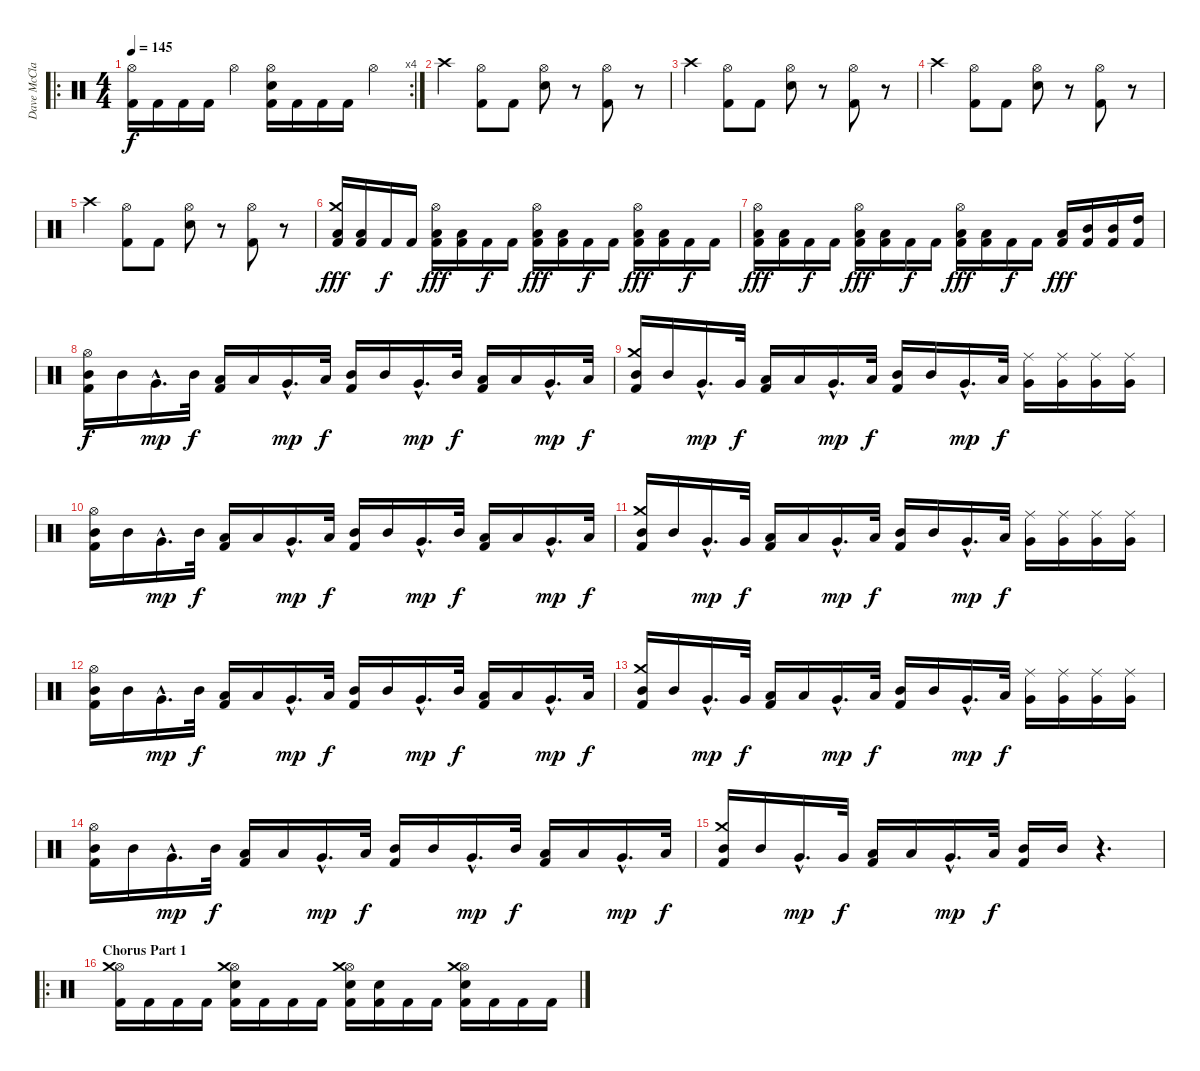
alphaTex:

\track ("Dave McClain" "Dave McCla") {instrument percussion}
\staff {score}
\articulation defaults
\ro
\rc 4
\ts (4 4)
\tempo 145
\clef neutral
\ks c
("Hi-Hat (open)" "Kick (hit) 2").16{dy f} "Kick (hit) 2".16 "Kick (hit) 2".16 "Kick (hit) 2".16 "Hi-Hat (open)".4 ("Hi-Hat (open)" "Snare (hit) 2" "Kick (hit) 2").16 "Kick (hit) 2".16 "Kick (hit) 2".16 "Kick (hit) 2".16 "Hi-Hat (open)".4 |
"Crash high (hit)".4 ("Hi-Hat (open)" "Kick (hit) 2").8 "Kick (hit) 2".8 ("Hi-Hat (open)" "Snare (hit) 2").8 r.8 ("Hi-Hat (open)" "Kick (hit) 2").8 r.8 |
"Crash high (hit)".4 ("Hi-Hat (open)" "Kick (hit) 2").8 "Kick (hit) 2".8 ("Hi-Hat (open)" "Snare (hit) 2").8 r.8 ("Hi-Hat (open)" "Kick (hit) 2").8 r.8 |
"Crash high (hit)".4 ("Hi-Hat (open)" "Kick (hit) 2").8 "Kick (hit) 2".8 ("Hi-Hat (open)" "Snare (hit) 2").8 r.8 ("Hi-Hat (open)" "Kick (hit) 2").8 r.8 |
"Crash high (hit)".4 ("Hi-Hat (open)" "Kick (hit) 2").8 "Kick (hit) 2".8 ("Hi-Hat (open)" "Snare (hit) 2").8 r.8 ("Hi-Hat (open)" "Kick (hit) 2").8 r.8 |
("Crash medium (hit)" "Low Floor Tom (hit)" "Kick (hit) 2").16{dy fff} ("Low Floor Tom (hit)" "Kick (hit) 2").16 "Kick (hit) 2".16{dy f} "Kick (hit) 2".16 ("Hi-Hat (open)" "Low Floor Tom (hit)" "Kick (hit) 2").16{dy fff} ("Low Floor Tom (hit)" "Kick (hit) 2").16 "Kick (hit) 2".16{dy f} "Kick (hit) 2".16 ("Hi-Hat (open)" "Low Floor Tom (hit)" "Kick (hit) 2").16{dy fff} ("Low Floor Tom (hit)" "Kick (hit) 2").16 "Kick (hit) 2".16{dy f} "Kick (hit) 2".16 ("Hi-Hat (open)" "Low Floor Tom (hit)" "Kick (hit) 2").16{dy fff} ("Low Floor Tom (hit)" "Kick (hit) 2").16 "Kick (hit) 2".16{dy f} "Kick (hit) 2".16 |
("Hi-Hat (open)" "Low Floor Tom (hit)" "Kick (hit) 2").16{dy fff} ("Low Floor Tom (hit)" "Kick (hit) 2").16 "Kick (hit) 2".16{dy f} "Kick (hit) 2".16 ("Hi-Hat (open)" "Low Floor Tom (hit)" "Kick (hit) 2").16{dy fff} ("Low Floor Tom (hit)" "Kick (hit) 2").16 "Kick (hit) 2".16{dy f} "Kick (hit) 2".16 ("Hi-Hat (open)" "Low Floor Tom (hit)" "Kick (hit) 2").16{dy fff} ("Low Floor Tom (hit)" "Kick (hit) 2").16 "Kick (hit) 2".16{dy f} "Kick (hit) 2".16 ("Low Tom (hit)" "Kick (hit) 2").16{dy fff} ("Mid Tom (hit)" "Kick (hit) 2").16 ("Mid Tom (hit)" "Kick (hit) 2").16 ("High Tom (hit)" "Kick (hit) 2").16 |
("Hi-Hat (open)" "Mid Tom (hit)" "Kick (hit) 2").16{dy f} "Mid Tom (hit)".16 "Very Low Tom (hit)"{hac}.16{d dy mp} "Mid Tom (hit)".32{dy f} ("Low Tom (hit)" "Kick (hit) 2").16 "Low Tom (hit)".16 "Very Low Tom (hit)"{hac}.16{d dy mp} "Low Tom (hit)".32{dy f} ("Mid Tom (hit)" "Kick (hit) 2").16 "Mid Tom (hit)".16 "Very Low Tom (hit)"{hac}.16{d dy mp} "Mid Tom (hit)".32{dy f} ("Low Tom (hit)" "Kick (hit) 2").16 "Low Tom (hit)".16 "Very Low Tom (hit)"{hac}.16{d dy mp} "Low Tom (hit)".32{dy f} |
("Crash medium (hit)" "Mid Tom (hit)" "Kick (hit) 2").16 "Mid Tom (hit)".16 "Very Low Tom (hit)"{hac}.16{d dy mp} "Very Low Tom (hit)".32{dy f} ("Low Tom (hit)" "Kick (hit) 2").16 "Low Tom (hit)".16 "Very Low Tom (hit)"{hac}.16{d dy mp} "Low Tom (hit)".32{dy f} ("Mid Tom (hit)" "Kick (hit) 2").16 "Mid Tom (hit)".16 "Very Low Tom (hit)"{hac}.16{d dy mp} "Low Tom (hit)".32{dy f} ("Ride (middle)" "Very Low Tom (hit)").16 ("Ride (middle)" "Very Low Tom (hit)").16 ("Ride (middle)" "Very Low Tom (hit)").16 ("Ride (middle)" "Very Low Tom (hit)").16 |
("Hi-Hat (open)" "Mid Tom (hit)" "Kick (hit) 2").16 "Mid Tom (hit)".16 "Very Low Tom (hit)"{hac}.16{d dy mp} "Mid Tom (hit)".32{dy f} ("Low Tom (hit)" "Kick (hit) 2").16 "Low Tom (hit)".16 "Very Low Tom (hit)"{hac}.16{d dy mp} "Low Tom (hit)".32{dy f} ("Mid Tom (hit)" "Kick (hit) 2").16 "Mid Tom (hit)".16 "Very Low Tom (hit)"{hac}.16{d dy mp} "Mid Tom (hit)".32{dy f} ("Low Tom (hit)" "Kick (hit) 2").16 "Low Tom (hit)".16 "Very Low Tom (hit)"{hac}.16{d dy mp} "Low Tom (hit)".32{dy f} |
("Crash medium (hit)" "Mid Tom (hit)" "Kick (hit) 2").16 "Mid Tom (hit)".16 "Very Low Tom (hit)"{hac}.16{d dy mp} "Very Low Tom (hit)".32{dy f} ("Low Tom (hit)" "Kick (hit) 2").16 "Low Tom (hit)".16 "Very Low Tom (hit)"{hac}.16{d dy mp} "Low Tom (hit)".32{dy f} ("Mid Tom (hit)" "Kick (hit) 2").16 "Mid Tom (hit)".16 "Very Low Tom (hit)"{hac}.16{d dy mp} "Low Tom (hit)".32{dy f} ("Ride (middle)" "Very Low Tom (hit)").16 ("Ride (middle)" "Very Low Tom (hit)").16 ("Ride (middle)" "Very Low Tom (hit)").16 ("Ride (middle)" "Very Low Tom (hit)").16 |
("Hi-Hat (open)" "Mid Tom (hit)" "Kick (hit) 2").16 "Mid Tom (hit)".16 "Very Low Tom (hit)"{hac}.16{d dy mp} "Mid Tom (hit)".32{dy f} ("Low Tom (hit)" "Kick (hit) 2").16 "Low Tom (hit)".16 "Very Low Tom (hit)"{hac}.16{d dy mp} "Low Tom (hit)".32{dy f} ("Mid Tom (hit)" "Kick (hit) 2").16 "Mid Tom (hit)".16 "Very Low Tom (hit)"{hac}.16{d dy mp} "Mid Tom (hit)".32{dy f} ("Low Tom (hit)" "Kick (hit) 2").16 "Low Tom (hit)".16 "Very Low Tom (hit)"{hac}.16{d dy mp} "Low Tom (hit)".32{dy f} |
("Crash medium (hit)" "Mid Tom (hit)" "Kick (hit) 2").16 "Mid Tom (hit)".16 "Very Low Tom (hit)"{hac}.16{d dy mp} "Very Low Tom (hit)".32{dy f} ("Low Tom (hit)" "Kick (hit) 2").16 "Low Tom (hit)".16 "Very Low Tom (hit)"{hac}.16{d dy mp} "Low Tom (hit)".32{dy f} ("Mid Tom (hit)" "Kick (hit) 2").16 "Mid Tom (hit)".16 "Very Low Tom (hit)"{hac}.16{d dy mp} "Low Tom (hit)".32{dy f} ("Ride (middle)" "Very Low Tom (hit)").16 ("Ride (middle)" "Very Low Tom (hit)").16 ("Ride (middle)" "Very Low Tom (hit)").16 ("Ride (middle)" "Very Low Tom (hit)").16 |
("Hi-Hat (open)" "Mid Tom (hit)" "Kick (hit) 2").16 "Mid Tom (hit)".16 "Very Low Tom (hit)"{hac}.16{d dy mp} "Mid Tom (hit)".32{dy f} ("Low Tom (hit)" "Kick (hit) 2").16 "Low Tom (hit)".16 "Very Low Tom (hit)"{hac}.16{d dy mp} "Low Tom (hit)".32{dy f} ("Mid Tom (hit)" "Kick (hit) 2").16 "Mid Tom (hit)".16 "Very Low Tom (hit)"{hac}.16{d dy mp} "Mid Tom (hit)".32{dy f} ("Low Tom (hit)" "Kick (hit) 2").16 "Low Tom (hit)".16 "Very Low Tom (hit)"{hac}.16{d dy mp} "Low Tom (hit)".32{dy f} |
("Crash medium (hit)" "Mid Tom (hit)" "Kick (hit) 2").16 "Mid Tom (hit)".16 "Very Low Tom (hit)"{hac}.16{d dy mp} "Very Low Tom (hit)".32{dy f} ("Low Tom (hit)" "Kick (hit) 2").16 "Low Tom (hit)".16 "Very Low Tom (hit)"{hac}.16{d dy mp} "Low Tom (hit)".32{dy f} ("Mid Tom (hit)" "Kick (hit) 2").16 "Mid Tom (hit)".16 r.4{d} |
\ro
\section ("" "Chorus Part 1")
("Hi-Hat (open)" "Crash medium (hit)" "Kick (hit) 2").16 "Kick (hit) 2".16 "Kick (hit) 2".16 "Kick (hit) 2".16 ("Hi-Hat (open)" "Crash medium (hit)" "Snare (hit) 2" "Kick (hit) 2").16 "Kick (hit) 2".16 "Kick (hit) 2".16 "Kick (hit) 2".16 ("Hi-Hat (open)" "Crash medium (hit)" "Snare (hit) 2" "Kick (hit) 2").16 ("Snare (hit) 2" "Kick (hit) 2").16 "Kick (hit) 2".16 "Kick (hit) 2".16 ("Hi-Hat (open)" "Crash medium (hit)" "Snare (hit) 2" "Kick (hit) 2").16 "Kick (hit) 2".16 "Kick (hit) 2".16 "Kick (hit) 2".16
